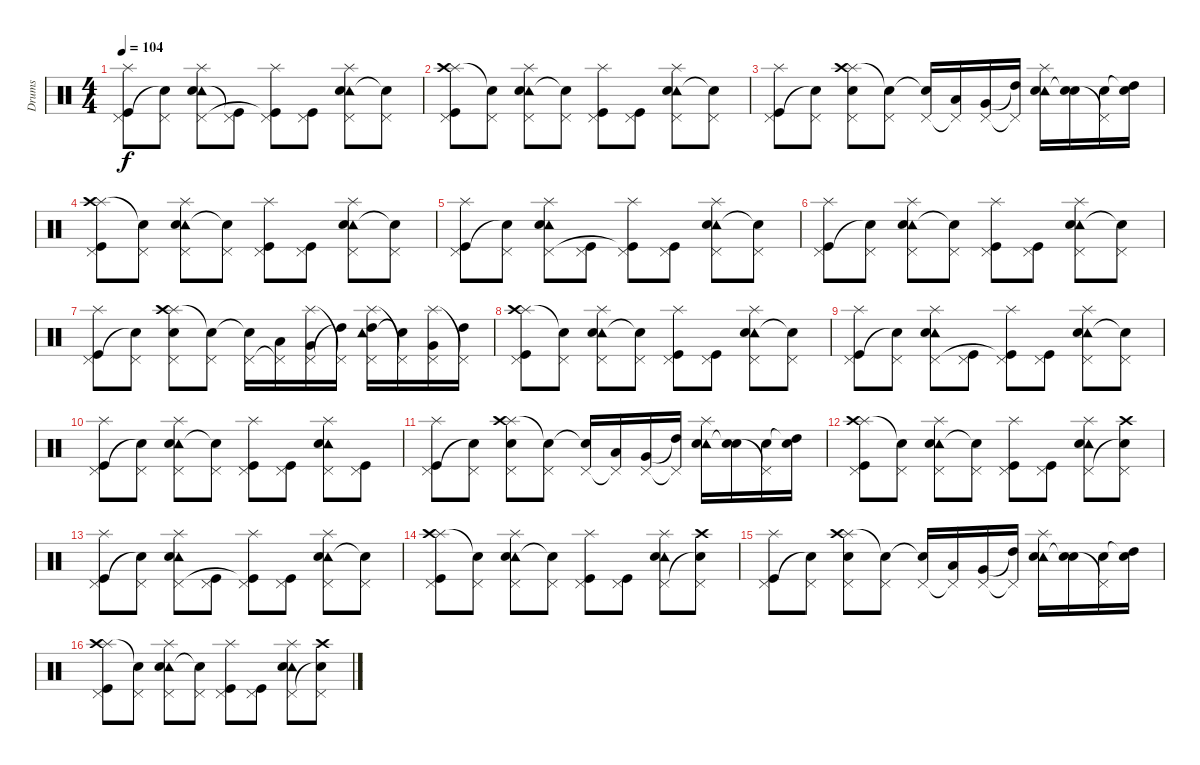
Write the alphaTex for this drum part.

\track ("Drums" "Drums") {instrument percussion}
\staff {score}
\articulation defaults
\ts (4 4)
\tempo 104
\clef neutral
\ks c
("Splash (hit)" "Pedal Hi-Hat (hit)" "Kick (hit)").8{dy f} ("Pedal Hi-Hat (hit)" "Snare (hit)"{t}).8 ("Splash (hit)" "Tambourine (hit)" "Pedal Hi-Hat (hit)" "Snare (hit) 2").8 ("Pedal Hi-Hat (hit)" "Kick (hit)"{t}).8 ("Splash (hit)" "Pedal Hi-Hat (hit)" "Kick (hit)"{t}).8 ("Pedal Hi-Hat (hit)" "Kick (hit)").8 ("Splash (hit)" "Tambourine (hit)" "Pedal Hi-Hat (hit)" "Snare (hit) 2").8 ("Pedal Hi-Hat (hit)" "Snare (hit) 2"{t}).8 |
("Splash (hit)" "Crash high (hit)" "Pedal Hi-Hat (hit)" "Kick (hit)").8 ("Pedal Hi-Hat (hit)" "Snare (hit)"{t}).8 ("Splash (hit)" "Tambourine (hit)" "Pedal Hi-Hat (hit)" "Snare (hit) 2").8 ("Pedal Hi-Hat (hit)" "Snare (hit)"{t}).8 ("Splash (hit)" "Pedal Hi-Hat (hit)" "Kick (hit)").8 ("Pedal Hi-Hat (hit)" "Kick (hit)").8 ("Splash (hit)" "Tambourine (hit)" "Pedal Hi-Hat (hit)" "Snare (hit) 2").8 ("Pedal Hi-Hat (hit)" "Snare (hit)"{t}).8 |
("Splash (hit)" "Pedal Hi-Hat (hit)" "Kick (hit)").8 ("Pedal Hi-Hat (hit)" "Snare (hit)"{t}).8 ("Splash (hit)" "Crash high (hit)" "Pedal Hi-Hat (hit)" "Snare (hit) 2").8 ("Pedal Hi-Hat (hit)" "Snare (hit)"{t}).8 ("Pedal Hi-Hat (hit)" "Snare (hit)"{t}).16 ("Pedal Hi-Hat (hit)"{t} "Low Tom (hit)").16 ("Pedal Hi-Hat (hit)" "Very Low Tom (hit)").16 ("Pedal Hi-Hat (hit)"{t} "High Tom (hit)"{t}).16 ("Splash (hit)" "Tambourine (hit)" "Electric Snare (hit)").16 ("Electric Snare (hit)" "Snare (hit)"{t}).16 ("Pedal Hi-Hat (hit)"{t} "Electric Snare (hit)").16 ("Electric Snare (hit)" "High Tom (hit)"{t}).16 |
("Splash (hit)" "Crash high (hit)" "Pedal Hi-Hat (hit)" "Kick (hit)").8 ("Pedal Hi-Hat (hit)" "Snare (hit)"{t}).8 ("Splash (hit)" "Tambourine (hit)" "Pedal Hi-Hat (hit)" "Snare (hit) 2").8 ("Pedal Hi-Hat (hit)" "Snare (hit)"{t}).8 ("Splash (hit)" "Pedal Hi-Hat (hit)" "Kick (hit)").8 ("Pedal Hi-Hat (hit)" "Kick (hit)").8 ("Splash (hit)" "Tambourine (hit)" "Pedal Hi-Hat (hit)" "Snare (hit) 2").8 ("Pedal Hi-Hat (hit)" "Snare (hit)"{t}).8 |
("Splash (hit)" "Pedal Hi-Hat (hit)" "Kick (hit)").8 ("Pedal Hi-Hat (hit)" "Snare (hit)"{t}).8 ("Splash (hit)" "Tambourine (hit)" "Pedal Hi-Hat (hit)" "Snare (hit) 2").8 ("Pedal Hi-Hat (hit)" "Kick (hit)").8 ("Splash (hit)" "Pedal Hi-Hat (hit)" "Kick (hit)"{t}).8 ("Pedal Hi-Hat (hit)" "Kick (hit)").8 ("Splash (hit)" "Tambourine (hit)" "Pedal Hi-Hat (hit)" "Snare (hit) 2").8 ("Pedal Hi-Hat (hit)" "Snare (hit) 2"{t}).8 |
("Splash (hit)" "Pedal Hi-Hat (hit)" "Kick (hit)").8 ("Pedal Hi-Hat (hit)" "Snare (hit)"{t}).8 ("Splash (hit)" "Tambourine (hit)" "Pedal Hi-Hat (hit)" "Snare (hit) 2").8 ("Pedal Hi-Hat (hit)" "Snare (hit)"{t}).8 ("Splash (hit)" "Pedal Hi-Hat (hit)" "Kick (hit)").8 ("Pedal Hi-Hat (hit)" "Kick (hit)").8 ("Splash (hit)" "Tambourine (hit)" "Pedal Hi-Hat (hit)" "Snare (hit) 2").8 ("Pedal Hi-Hat (hit)" "Snare (hit)"{t}).8 |
("Splash (hit)" "Pedal Hi-Hat (hit)" "Kick (hit)").8 ("Pedal Hi-Hat (hit)" "Snare (hit)"{t}).8 ("Splash (hit)" "Crash high (hit)" "Pedal Hi-Hat (hit)" "Snare (hit) 2").8 ("Pedal Hi-Hat (hit)" "Snare (hit)"{t}).8 ("Pedal Hi-Hat (hit)" "Snare (hit)"{t}).16 ("Pedal Hi-Hat (hit)"{t} "Low Tom (hit)").16 ("Splash (hit)" "Pedal Hi-Hat (hit)" "Very Low Tom (hit)").16 ("Pedal Hi-Hat (hit)"{t} "High Tom (hit)"{t}).16 ("Splash (hit)" "Tambourine (hit)" "Pedal Hi-Hat (hit)" "High Tom (hit)").16 ("Pedal Hi-Hat (hit)"{t} "Snare (hit)"{t}).16 ("Splash (hit)" "Pedal Hi-Hat (hit)" "Very Low Tom (hit)").16 ("Pedal Hi-Hat (hit)"{t} "High Tom (hit)").16 |
("Splash (hit)" "Crash high (hit)" "Pedal Hi-Hat (hit)" "Kick (hit)").8 ("Pedal Hi-Hat (hit)" "Snare (hit)"{t}).8 ("Splash (hit)" "Tambourine (hit)" "Pedal Hi-Hat (hit)" "Snare (hit) 2").8 ("Pedal Hi-Hat (hit)" "Snare (hit)"{t}).8 ("Splash (hit)" "Pedal Hi-Hat (hit)" "Kick (hit)").8 ("Pedal Hi-Hat (hit)" "Kick (hit)").8 ("Splash (hit)" "Tambourine (hit)" "Pedal Hi-Hat (hit)" "Snare (hit) 2").8 ("Pedal Hi-Hat (hit)" "Snare (hit)"{t}).8 |
("Splash (hit)" "Pedal Hi-Hat (hit)" "Kick (hit)").8 ("Pedal Hi-Hat (hit)" "Snare (hit)"{t}).8 ("Splash (hit)" "Tambourine (hit)" "Pedal Hi-Hat (hit)" "Snare (hit) 2").8 ("Pedal Hi-Hat (hit)" "Kick (hit)").8 ("Splash (hit)" "Pedal Hi-Hat (hit)" "Kick (hit)"{t}).8 ("Pedal Hi-Hat (hit)" "Kick (hit)").8 ("Splash (hit)" "Tambourine (hit)" "Pedal Hi-Hat (hit)" "Snare (hit) 2").8 ("Pedal Hi-Hat (hit)" "Snare (hit) 2"{t}).8 |
("Splash (hit)" "Pedal Hi-Hat (hit)" "Kick (hit)").8 ("Pedal Hi-Hat (hit)" "Snare (hit)"{t}).8 ("Splash (hit)" "Tambourine (hit)" "Pedal Hi-Hat (hit)" "Snare (hit) 2").8 ("Pedal Hi-Hat (hit)" "Snare (hit)"{t}).8 ("Splash (hit)" "Pedal Hi-Hat (hit)" "Kick (hit)").8 ("Pedal Hi-Hat (hit)" "Kick (hit)").8 ("Splash (hit)" "Tambourine (hit)" "Pedal Hi-Hat (hit)" "Snare (hit) 2").8 ("Pedal Hi-Hat (hit)" "Kick (hit)").8 |
("Splash (hit)" "Pedal Hi-Hat (hit)" "Kick (hit)").8 ("Pedal Hi-Hat (hit)" "Snare (hit)"{t}).8 ("Splash (hit)" "Crash high (hit)" "Pedal Hi-Hat (hit)" "Snare (hit) 2").8 ("Pedal Hi-Hat (hit)" "Snare (hit)"{t}).8 ("Pedal Hi-Hat (hit)" "Snare (hit)"{t}).16 ("Pedal Hi-Hat (hit)"{t} "Low Tom (hit)").16 ("Pedal Hi-Hat (hit)" "Very Low Tom (hit)").16 ("Pedal Hi-Hat (hit)"{t} "High Tom (hit)"{t}).16 ("Splash (hit)" "Tambourine (hit)" "Electric Snare (hit)").16 ("Electric Snare (hit)" "Snare (hit)"{t}).16 ("Pedal Hi-Hat (hit)"{t} "Electric Snare (hit)").16 ("Electric Snare (hit)" "High Tom (hit)"{t}).16 |
("Splash (hit)" "Crash high (hit)" "Pedal Hi-Hat (hit)" "Kick (hit)").8 ("Pedal Hi-Hat (hit)" "Snare (hit)"{t}).8 ("Splash (hit)" "Tambourine (hit)" "Pedal Hi-Hat (hit)" "Snare (hit) 2").8 ("Pedal Hi-Hat (hit)" "Snare (hit)"{t}).8 ("Splash (hit)" "Pedal Hi-Hat (hit)" "Kick (hit)").8 ("Pedal Hi-Hat (hit)" "Kick (hit)").8 ("Splash (hit)" "Tambourine (hit)" "Pedal Hi-Hat (hit)" "Snare (hit) 2").8 ("Crash high (hit)" "Pedal Hi-Hat (hit)" "Snare (hit)"{t}).8 |
("Splash (hit)" "Pedal Hi-Hat (hit)" "Kick (hit)").8 ("Pedal Hi-Hat (hit)" "Snare (hit)"{t}).8 ("Splash (hit)" "Tambourine (hit)" "Pedal Hi-Hat (hit)" "Snare (hit) 2").8 ("Pedal Hi-Hat (hit)" "Kick (hit)").8 ("Splash (hit)" "Pedal Hi-Hat (hit)" "Kick (hit)"{t}).8 ("Pedal Hi-Hat (hit)" "Kick (hit)").8 ("Splash (hit)" "Tambourine (hit)" "Pedal Hi-Hat (hit)" "Snare (hit) 2").8 ("Pedal Hi-Hat (hit)" "Snare (hit) 2"{t}).8 |
("Splash (hit)" "Crash high (hit)" "Pedal Hi-Hat (hit)" "Kick (hit)").8 ("Pedal Hi-Hat (hit)" "Snare (hit)"{t}).8 ("Splash (hit)" "Tambourine (hit)" "Pedal Hi-Hat (hit)" "Snare (hit) 2").8 ("Pedal Hi-Hat (hit)" "Snare (hit)"{t}).8 ("Splash (hit)" "Pedal Hi-Hat (hit)" "Kick (hit)").8 ("Pedal Hi-Hat (hit)" "Kick (hit)").8 ("Splash (hit)" "Tambourine (hit)" "Pedal Hi-Hat (hit)" "Snare (hit) 2").8 ("Crash high (hit)" "Pedal Hi-Hat (hit)" "Snare (hit)"{t}).8 |
("Splash (hit)" "Pedal Hi-Hat (hit)" "Kick (hit)").8 ("Pedal Hi-Hat (hit)" "Snare (hit)"{t}).8 ("Splash (hit)" "Crash high (hit)" "Pedal Hi-Hat (hit)" "Snare (hit) 2").8 ("Pedal Hi-Hat (hit)" "Snare (hit)"{t}).8 ("Pedal Hi-Hat (hit)" "Snare (hit)"{t}).16 ("Pedal Hi-Hat (hit)"{t} "Low Tom (hit)").16 ("Pedal Hi-Hat (hit)" "Very Low Tom (hit)").16 ("Pedal Hi-Hat (hit)"{t} "High Tom (hit)"{t}).16 ("Splash (hit)" "Tambourine (hit)" "Electric Snare (hit)").16 ("Electric Snare (hit)" "Snare (hit)"{t}).16 ("Pedal Hi-Hat (hit)"{t} "Electric Snare (hit)").16 ("Electric Snare (hit)" "High Tom (hit)"{t}).16 |
("Splash (hit)" "Crash high (hit)" "Pedal Hi-Hat (hit)" "Kick (hit)").8 ("Pedal Hi-Hat (hit)" "Snare (hit)"{t}).8 ("Splash (hit)" "Tambourine (hit)" "Pedal Hi-Hat (hit)" "Snare (hit) 2").8 ("Pedal Hi-Hat (hit)" "Snare (hit)"{t}).8 ("Splash (hit)" "Pedal Hi-Hat (hit)" "Kick (hit)").8 ("Pedal Hi-Hat (hit)" "Kick (hit)").8 ("Splash (hit)" "Tambourine (hit)" "Pedal Hi-Hat (hit)" "Snare (hit) 2").8 ("Crash high (hit)" "Pedal Hi-Hat (hit)" "Snare (hit)"{t}).8
